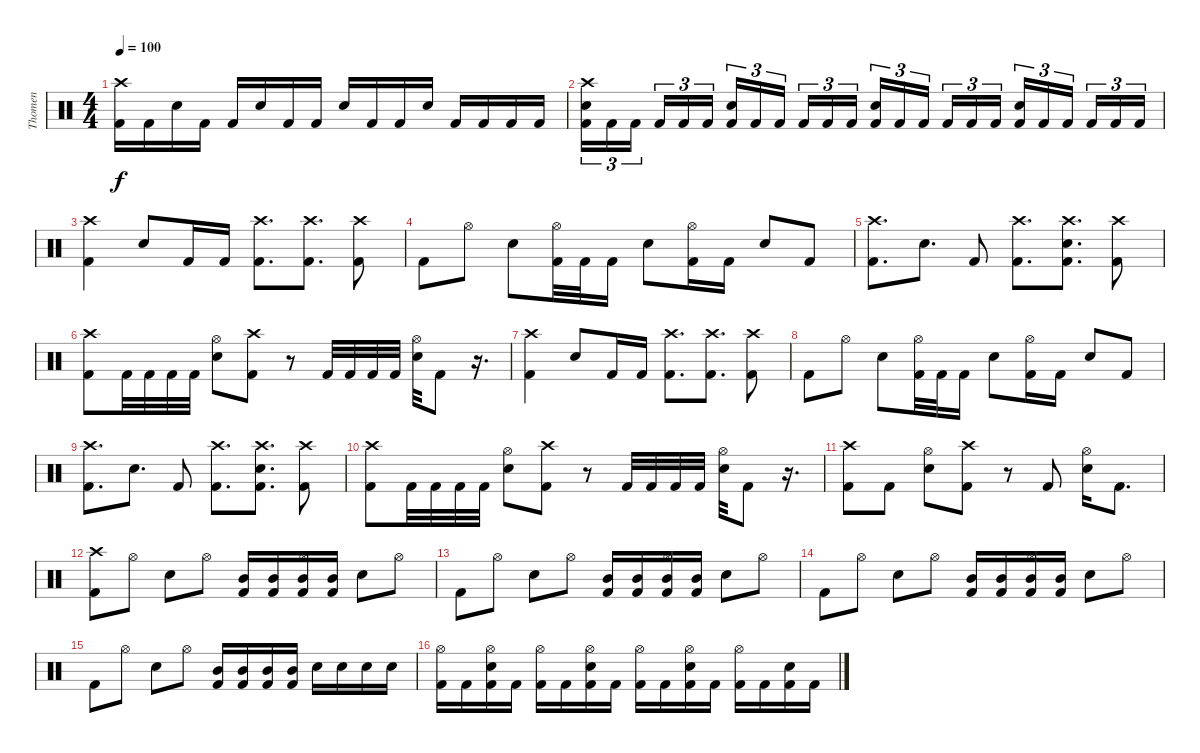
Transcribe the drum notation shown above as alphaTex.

\track ("Thomen" "Thomen") {instrument percussion}
\staff {score}
\articulation defaults
\ts (4 4)
\tempo 100
\clef neutral
\ks c
("Crash high (hit)" "Kick (hit) 2").16{dy f} "Kick (hit) 2".16 "Snare (hit) 2".16 "Kick (hit) 2".16 "Kick (hit) 2".16 "Snare (hit) 2".16 "Kick (hit) 2".16 "Kick (hit) 2".16 "Snare (hit) 2".16 "Kick (hit) 2".16 "Kick (hit) 2".16 "Snare (hit) 2".16 "Kick (hit) 2".16 "Kick (hit) 2".16 "Kick (hit) 2".16 "Kick (hit) 2".16 |
("Crash high (hit)" "Snare (hit) 2" "Kick (hit) 2").16{tu (3 2)} "Kick (hit) 2".16{tu (3 2)} "Kick (hit) 2".16{tu (3 2) beam splitsecondary} "Kick (hit) 2".16{tu (3 2)} "Kick (hit) 2".16{tu (3 2)} "Kick (hit) 2".16{tu (3 2)} ("Snare (hit) 2" "Kick (hit) 2").16{tu (3 2)} "Kick (hit) 2".16{tu (3 2)} "Kick (hit) 2".16{tu (3 2) beam splitsecondary} "Kick (hit) 2".16{tu (3 2)} "Kick (hit) 2".16{tu (3 2)} "Kick (hit) 2".16{tu (3 2)} ("Snare (hit) 2" "Kick (hit) 2").16{tu (3 2)} "Kick (hit) 2".16{tu (3 2)} "Kick (hit) 2".16{tu (3 2) beam splitsecondary} "Kick (hit) 2".16{tu (3 2)} "Kick (hit) 2".16{tu (3 2)} "Kick (hit) 2".16{tu (3 2)} ("Snare (hit) 2" "Kick (hit) 2").16{tu (3 2)} "Kick (hit) 2".16{tu (3 2)} "Kick (hit) 2".16{tu (3 2) beam splitsecondary} "Kick (hit) 2".16{tu (3 2)} "Kick (hit) 2".16{tu (3 2)} "Kick (hit) 2".16{tu (3 2)} |
("Crash high (hit)" "Kick (hit) 2").4 "Snare (hit) 2".8 "Kick (hit) 2".16 "Kick (hit) 2".16 ("Crash high (hit)" "Kick (hit) 2").8{d} ("Crash high (hit)" "Kick (hit) 2").8{d} ("Crash high (hit)" "Kick (hit) 2").8 |
"Kick (hit) 2".8 "Hi-Hat (open)".8 "Snare (hit) 2".8 ("Hi-Hat (open)" "Kick (hit) 2").32 "Kick (hit) 2".32 "Kick (hit) 2".16 "Snare (hit) 2".8 ("Hi-Hat (open)" "Kick (hit) 2").16 "Kick (hit) 2".16 "Snare (hit) 2".8 "Kick (hit) 2".8 |
("Crash high (hit)" "Kick (hit) 2").8{d} "Snare (hit) 2".8{d} "Kick (hit) 2".8 ("Crash high (hit)" "Kick (hit) 2").8{d} ("Crash high (hit)" "Snare (hit) 2" "Kick (hit) 2").8{d} ("Crash high (hit)" "Kick (hit) 2").8 |
("Crash high (hit)" "Kick (hit) 2").8 "Kick (hit) 2".32 "Kick (hit) 2".32 "Kick (hit) 2".32 "Kick (hit) 2".32 ("Hi-Hat (open)" "Snare (hit) 2").8 ("Crash high (hit)" "Kick (hit) 2").8 r.8 "Kick (hit) 2".32 "Kick (hit) 2".32 "Kick (hit) 2".32 "Kick (hit) 2".32 ("Hi-Hat (open)" "Snare (hit) 2").32 "Kick (hit) 2".8 r.16{d} |
("Crash high (hit)" "Kick (hit) 2").4 "Snare (hit) 2".8 "Kick (hit) 2".16 "Kick (hit) 2".16 ("Crash high (hit)" "Kick (hit) 2").8{d} ("Crash high (hit)" "Kick (hit) 2").8{d} ("Crash high (hit)" "Kick (hit) 2").8 |
"Kick (hit) 2".8 "Hi-Hat (open)".8 "Snare (hit) 2".8 ("Hi-Hat (open)" "Kick (hit) 2").32 "Kick (hit) 2".32 "Kick (hit) 2".16 "Snare (hit) 2".8 ("Hi-Hat (open)" "Kick (hit) 2").16 "Kick (hit) 2".16 "Snare (hit) 2".8 "Kick (hit) 2".8 |
("Crash high (hit)" "Kick (hit) 2").8{d} "Snare (hit) 2".8{d} "Kick (hit) 2".8 ("Crash high (hit)" "Kick (hit) 2").8{d} ("Crash high (hit)" "Snare (hit) 2" "Kick (hit) 2").8{d} ("Crash high (hit)" "Kick (hit) 2").8 |
("Crash high (hit)" "Kick (hit) 2").8 "Kick (hit) 2".32 "Kick (hit) 2".32 "Kick (hit) 2".32 "Kick (hit) 2".32 ("Hi-Hat (open)" "Snare (hit) 2").8 ("Crash high (hit)" "Kick (hit) 2").8 r.8 "Kick (hit) 2".32 "Kick (hit) 2".32 "Kick (hit) 2".32 "Kick (hit) 2".32 ("Hi-Hat (open)" "Snare (hit) 2").32 "Kick (hit) 2".8 r.16{d} |
("Crash high (hit)" "Kick (hit) 2").8 "Kick (hit) 2".8 ("Hi-Hat (open)" "Snare (hit) 2").8 ("Crash high (hit)" "Kick (hit) 2").8 r.8 "Kick (hit) 2".8 ("Hi-Hat (open)" "Snare (hit) 2").16 "Kick (hit) 2".8{d} |
("Crash high (hit)" "Kick (hit) 2").8 "Hi-Hat (open)".8 "Snare (hit) 2".8 "Hi-Hat (open)".8 ("Mid Tom (hit)" "Kick (hit) 2").16 ("Mid Tom (hit)" "Kick (hit) 2").16 ("Hi-Hat (open)" "Mid Tom (hit)" "Kick (hit) 2").16 ("Mid Tom (hit)" "Kick (hit) 2").16 "Snare (hit) 2".8 "Hi-Hat (open)".8 |
"Kick (hit) 2".8 "Hi-Hat (open)".8 "Snare (hit) 2".8 "Hi-Hat (open)".8 ("Mid Tom (hit)" "Kick (hit) 2").16 ("Mid Tom (hit)" "Kick (hit) 2").16 ("Hi-Hat (open)" "Mid Tom (hit)" "Kick (hit) 2").16 ("Mid Tom (hit)" "Kick (hit) 2").16 "Snare (hit) 2".8 "Hi-Hat (open)".8 |
"Kick (hit) 2".8 "Hi-Hat (open)".8 "Snare (hit) 2".8 "Hi-Hat (open)".8 ("Mid Tom (hit)" "Kick (hit) 2").16 ("Mid Tom (hit)" "Kick (hit) 2").16 ("Hi-Hat (open)" "Mid Tom (hit)" "Kick (hit) 2").16 ("Mid Tom (hit)" "Kick (hit) 2").16 "Snare (hit) 2".8 "Hi-Hat (open)".8 |
"Kick (hit) 2".8 "Hi-Hat (open)".8 "Snare (hit) 2".8 "Hi-Hat (open)".8 ("Mid Tom (hit)" "Kick (hit) 2").16 ("Mid Tom (hit)" "Kick (hit) 2").16 ("Mid Tom (hit)" "Kick (hit) 2").16 ("Mid Tom (hit)" "Kick (hit) 2").16 "Snare (hit) 2".16 "Snare (hit) 2".16 "Snare (hit) 2".16 "Snare (hit) 2".16 |
("Hi-Hat (open)" "Kick (hit) 2").16 "Kick (hit) 2".16 ("Hi-Hat (open)" "Snare (hit) 2" "Kick (hit) 2").16 "Kick (hit) 2".16 ("Hi-Hat (open)" "Kick (hit) 2").16 "Kick (hit) 2".16 ("Hi-Hat (open)" "Snare (hit) 2" "Kick (hit) 2").16 "Kick (hit) 2".16 ("Hi-Hat (open)" "Kick (hit) 2").16 "Kick (hit) 2".16 ("Hi-Hat (open)" "Snare (hit) 2" "Kick (hit) 2").16 "Kick (hit) 2".16 ("Hi-Hat (open)" "Kick (hit) 2").16 "Kick (hit) 2".16 ("Snare (hit) 2" "Kick (hit) 2").16 "Kick (hit) 2".16
